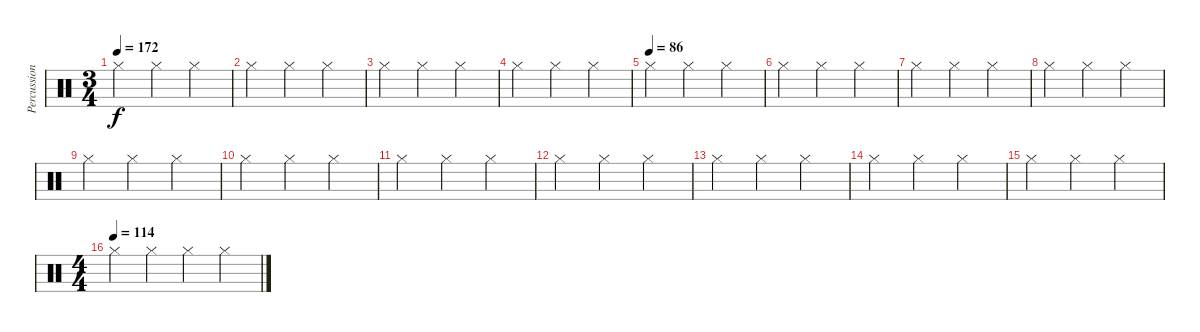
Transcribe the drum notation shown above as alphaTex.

\track ("Percussion" "Percussion") {instrument percussion}
\staff {score}
\articulation defaults
\ts (3 4)
\tempo 172
\clef neutral
\ks c "Hi-Hat (closed)".4{dy f} "Hi-Hat (closed)".4 "Hi-Hat (closed)".4
|
"Hi-Hat (closed)".4 "Hi-Hat (closed)".4 "Hi-Hat (closed)".4 |
"Hi-Hat (closed)".4 "Hi-Hat (closed)".4 "Hi-Hat (closed)".4 |
"Hi-Hat (closed)".4 "Hi-Hat (closed)".4 "Hi-Hat (closed)".4 |
\tempo (86)
"Hi-Hat (closed)".4 "Hi-Hat (closed)".4 "Hi-Hat (closed)".4 |
"Hi-Hat (closed)".4 "Hi-Hat (closed)".4 "Hi-Hat (closed)".4 |
"Hi-Hat (closed)".4 "Hi-Hat (closed)".4 "Hi-Hat (closed)".4 |
"Hi-Hat (closed)".4 "Hi-Hat (closed)".4 "Hi-Hat (closed)".4 |
"Hi-Hat (closed)".4 "Hi-Hat (closed)".4 "Hi-Hat (closed)".4 |
"Hi-Hat (closed)".4 "Hi-Hat (closed)".4 "Hi-Hat (closed)".4 |
"Hi-Hat (closed)".4 "Hi-Hat (closed)".4 "Hi-Hat (closed)".4 |
"Hi-Hat (closed)".4 "Hi-Hat (closed)".4 "Hi-Hat (closed)".4 |
"Hi-Hat (closed)".4 "Hi-Hat (closed)".4 "Hi-Hat (closed)".4 |
"Hi-Hat (closed)".4 "Hi-Hat (closed)".4 "Hi-Hat (closed)".4 |
"Hi-Hat (closed)".4 "Hi-Hat (closed)".4 "Hi-Hat (closed)".4 |
\ts (4 4)
\tempo (114)
"Hi-Hat (closed)".4 "Hi-Hat (closed)".4 "Hi-Hat (closed)".4 "Hi-Hat (closed)".4
